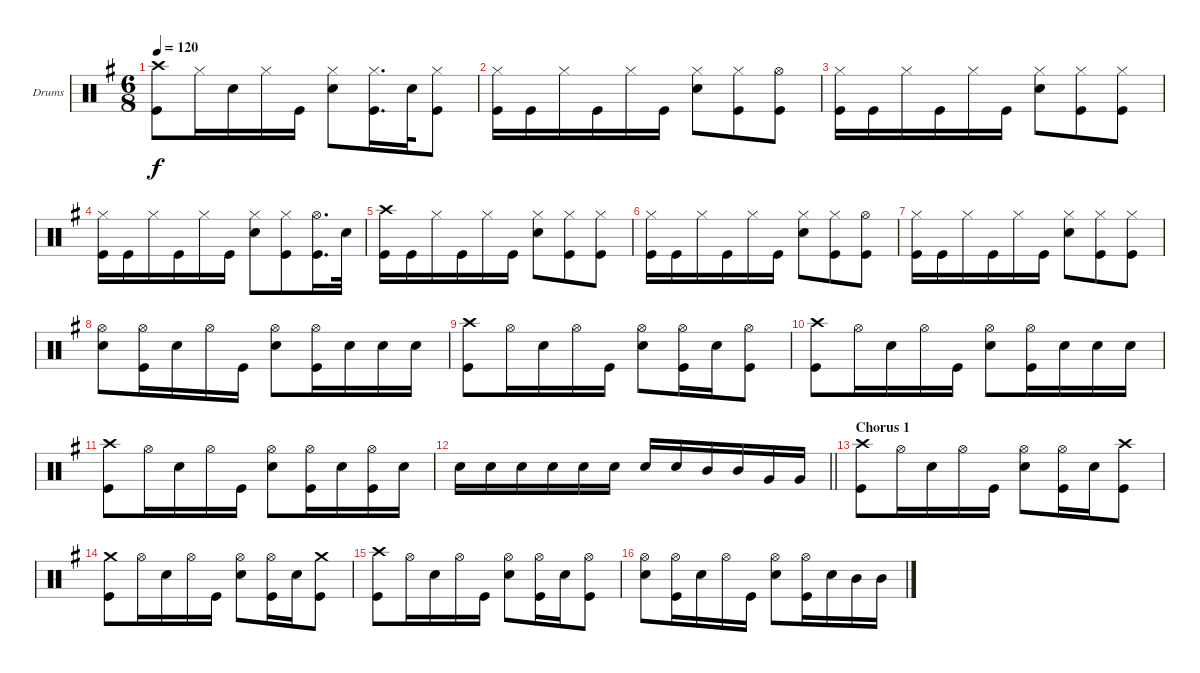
\bracketExtendMode groupsimilarinstruments
\firstSystemTrackNameOrientation horizontal
\otherSystemsTrackNameOrientation horizontal
\track ("drums (Anton Zulganov)" "Drums") {instrument percussion}
\staff {score}
\articulation defaults
\ts (6 8)
\tempo 120
\clef neutral
\ks eminor
("Kick (hit)" "Crash high (hit)").8{dy f} "Hi-Hat (closed)".16 "Snare (hit) 2".16 "Hi-Hat (closed)".16 "Kick (hit)".16 ("Snare (hit) 2" "Hi-Hat (closed)").8 ("Kick (hit)" "Hi-Hat (closed)").16{d} "Snare (hit) 2".32 ("Kick (hit)" "Hi-Hat (closed)").8 |
("Kick (hit)" "Hi-Hat (closed)").16 "Kick (hit)".16 "Hi-Hat (closed)".16 "Kick (hit)".16 "Hi-Hat (closed)".16 "Kick (hit)".16 ("Snare (hit) 2" "Hi-Hat (closed)").8 ("Kick (hit)" "Hi-Hat (closed)").8 ("Kick (hit)" "Hi-Hat (open)").8 |
("Kick (hit)" "Hi-Hat (closed)").16 "Kick (hit)".16 "Hi-Hat (closed)".16 "Kick (hit)".16 "Hi-Hat (closed)".16 "Kick (hit)".16 ("Snare (hit) 2" "Hi-Hat (closed)").8 ("Kick (hit)" "Hi-Hat (closed)").8 ("Kick (hit)" "Hi-Hat (closed)").8 |
("Kick (hit)" "Hi-Hat (closed)").16 "Kick (hit)".16 "Hi-Hat (closed)".16 "Kick (hit)".16 "Hi-Hat (closed)".16 "Kick (hit)".16 ("Snare (hit) 2" "Hi-Hat (closed)").8 ("Kick (hit)" "Hi-Hat (closed)").8 ("Kick (hit)" "Hi-Hat (open)").16{d} "Snare (hit) 2".32 |
("Kick (hit)" "Crash high (hit)").16 "Kick (hit)".16 "Hi-Hat (closed)".16 "Kick (hit)".16 "Hi-Hat (closed)".16 "Kick (hit)".16 ("Snare (hit) 2" "Hi-Hat (closed)").8 ("Kick (hit)" "Hi-Hat (closed)").8 ("Kick (hit)" "Hi-Hat (closed)").8 |
("Kick (hit)" "Hi-Hat (closed)").16 "Kick (hit)".16 "Hi-Hat (closed)".16 "Kick (hit)".16 "Hi-Hat (closed)".16 "Kick (hit)".16 ("Snare (hit) 2" "Hi-Hat (closed)").8 ("Kick (hit)" "Hi-Hat (closed)").8 ("Kick (hit)" "Hi-Hat (open)").8 |
("Kick (hit)" "Hi-Hat (closed)").16 "Kick (hit)".16 "Hi-Hat (closed)".16 "Kick (hit)".16 "Hi-Hat (closed)".16 "Kick (hit)".16 ("Snare (hit) 2" "Hi-Hat (closed)").8 ("Kick (hit)" "Hi-Hat (closed)").8 ("Kick (hit)" "Hi-Hat (closed)").8 |
("Hi-Hat (open)" "Snare (hit) 2").8 ("Kick (hit)" "Hi-Hat (open)").16 "Snare (hit) 2".16 "Hi-Hat (open)".16 "Kick (hit)".16 ("Snare (hit) 2" "Hi-Hat (open)").8 ("Kick (hit)" "Hi-Hat (open)").16 "Snare (hit) 2".16 "Snare (hit) 2".16 "Snare (hit) 2".16 |
("Kick (hit)" "Crash high (hit)").8 "Hi-Hat (open)".16 "Snare (hit) 2".16 "Hi-Hat (open)".16 "Kick (hit)".16 ("Snare (hit) 2" "Hi-Hat (open)").8 ("Kick (hit)" "Hi-Hat (open)").16 "Snare (hit) 2".16 ("Kick (hit)" "Hi-Hat (open)").8 |
("Kick (hit)" "Crash high (hit)").8 "Hi-Hat (open)".16 "Snare (hit) 2".16 "Hi-Hat (open)".16 "Kick (hit)".16 ("Snare (hit) 2" "Hi-Hat (open)").8 ("Kick (hit)" "Hi-Hat (open)").16 "Snare (hit) 2".16 "Snare (hit) 2".16 "Snare (hit) 2".16 |
("Kick (hit)" "Crash high (hit)").8 "Hi-Hat (open)".16 "Snare (hit) 2".16 "Hi-Hat (open)".16 "Kick (hit)".16 ("Snare (hit) 2" "Hi-Hat (open)").8 ("Kick (hit)" "Hi-Hat (open)").16 "Snare (hit) 2".16 ("Kick (hit)" "Hi-Hat (open)").16 "Snare (hit) 2".16 |
\barLineRight lightlight "Snare (hit) 2".16 "Snare (hit) 2".16 "Snare (hit) 2".16 "Snare (hit) 2".16 "Snare (hit) 2".16 "Snare (hit) 2".16 "Snare (hit) 2".16 "Snare (hit) 2".16 "Mid Tom (hit)".16 "Mid Tom (hit)".16 "Very Low Tom (hit)".16 "Very Low Tom (hit)".16
|
\section ("" "Chorus 1")
("Kick (hit)" "Crash high (hit)").8 "Hi-Hat (open)".16 "Snare (hit) 2".16 "Hi-Hat (open)".16 "Kick (hit)".16 ("Snare (hit) 2" "Hi-Hat (open)").8 ("Kick (hit)" "Hi-Hat (open)").16 "Snare (hit) 2".16 ("Kick (hit)" "Crash high (hit)").8 |
("Kick (hit)" "Crash medium (hit)").8 "Hi-Hat (open)".16 "Snare (hit) 2".16 "Hi-Hat (open)".16 "Kick (hit)".16 ("Snare (hit) 2" "Hi-Hat (open)").8 ("Kick (hit)" "Hi-Hat (open)").16 "Snare (hit) 2".16 ("Kick (hit)" "Crash medium (hit)").8 |
("Kick (hit)" "Crash high (hit)").8 "Hi-Hat (open)".16 "Snare (hit) 2".16 "Hi-Hat (open)".16 "Kick (hit)".16 ("Snare (hit) 2" "Hi-Hat (open)").8 ("Kick (hit)" "Hi-Hat (open)").16 "Snare (hit) 2".16 ("Kick (hit)" "Hi-Hat (open)").8 |
("Snare (hit) 2" "Hi-Hat (open)").8 ("Hi-Hat (open)" "Kick (hit)").16 "Snare (hit) 2".16 "Hi-Hat (open)".16 "Kick (hit)".16 ("Snare (hit) 2" "Hi-Hat (open)").8 ("Kick (hit)" "Hi-Hat (open)").16 "Snare (hit) 2".16 "Mid Tom (hit)".16 "Mid Tom (hit)".16
